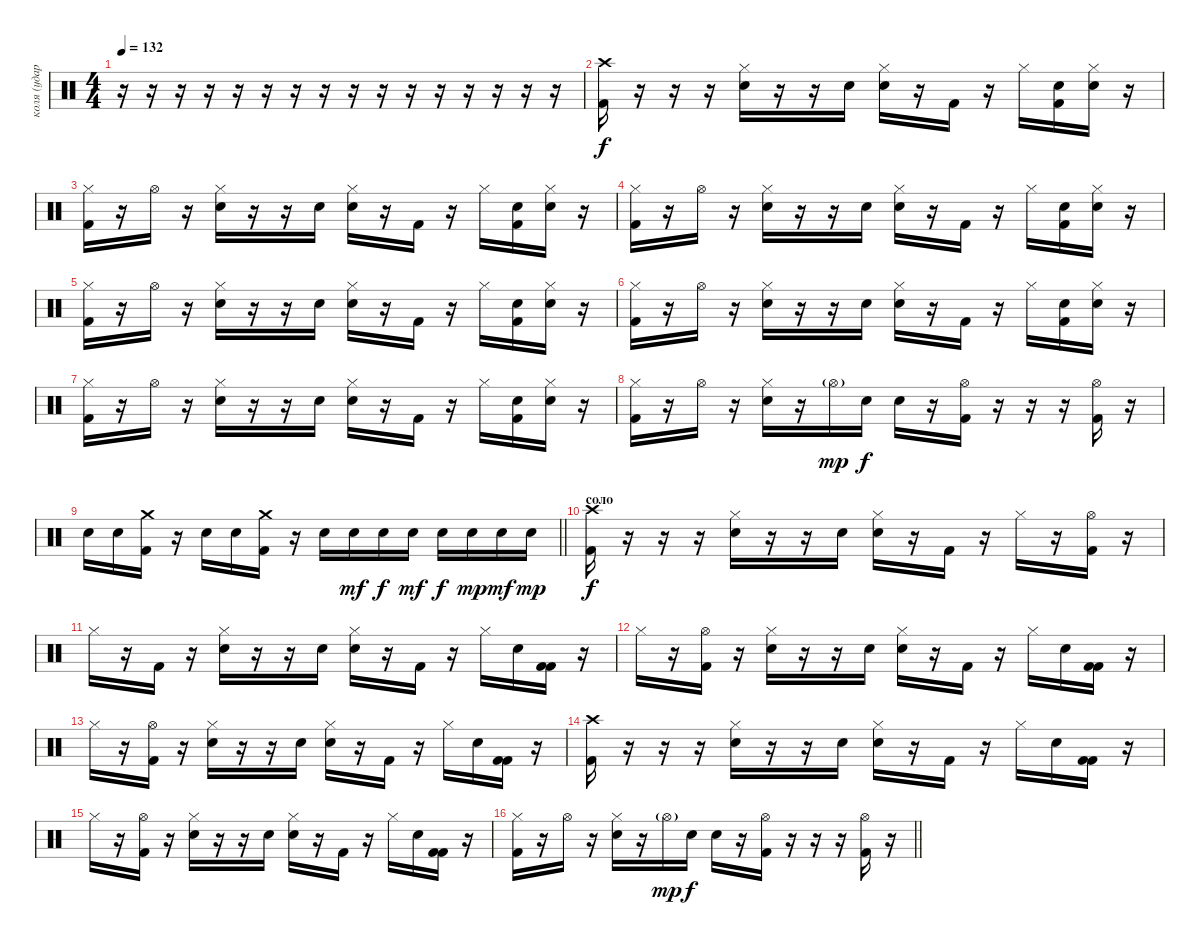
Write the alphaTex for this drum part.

\track ("коля (ударные)" "коля (удар") {instrument percussion}
\staff {score}
\articulation defaults
\ts (4 4)
\tempo 132
\clef neutral
\ks c
r.16{dy f} r.16 r.16 r.16 r.16 r.16 r.16 r.16 r.16 r.16 r.16 r.16 r.16 r.16 r.16 r.16 |
("Kick (hit) 2" "Crash high (hit)").16 r.16 r.16 r.16 ("Snare (hit) 2" "Hi-Hat (closed)").16 r.16 r.16 "Snare (hit) 2".16 ("Snare (hit) 2" "Hi-Hat (closed)").16 r.16 "Kick (hit) 2".16 r.16 "Hi-Hat (closed)".16 ("Snare (hit) 2" "Kick (hit) 2").16 ("Snare (hit) 2" "Hi-Hat (closed)").16 r.16 |
("Kick (hit) 2" "Hi-Hat (closed)").16 r.16 "Hi-Hat (open)".16 r.16 ("Snare (hit) 2" "Hi-Hat (closed)").16 r.16 r.16 "Snare (hit) 2".16 ("Snare (hit) 2" "Hi-Hat (closed)").16 r.16 "Kick (hit) 2".16 r.16 "Hi-Hat (closed)".16 ("Snare (hit) 2" "Kick (hit) 2").16 ("Snare (hit) 2" "Hi-Hat (closed)").16 r.16 |
("Kick (hit) 2" "Hi-Hat (closed)").16 r.16 "Hi-Hat (open)".16 r.16 ("Snare (hit) 2" "Hi-Hat (closed)").16 r.16 r.16 "Snare (hit) 2".16 ("Snare (hit) 2" "Hi-Hat (closed)").16 r.16 "Kick (hit) 2".16 r.16 "Hi-Hat (closed)".16 ("Snare (hit) 2" "Kick (hit) 2").16 ("Snare (hit) 2" "Hi-Hat (closed)").16 r.16 |
("Kick (hit) 2" "Hi-Hat (closed)").16 r.16 "Hi-Hat (open)".16 r.16 ("Snare (hit) 2" "Hi-Hat (closed)").16 r.16 r.16 "Snare (hit) 2".16 ("Snare (hit) 2" "Hi-Hat (closed)").16 r.16 "Kick (hit) 2".16 r.16 "Hi-Hat (closed)".16 ("Snare (hit) 2" "Kick (hit) 2").16 ("Snare (hit) 2" "Hi-Hat (closed)").16 r.16 |
("Kick (hit) 2" "Hi-Hat (closed)").16 r.16 "Hi-Hat (open)".16 r.16 ("Snare (hit) 2" "Hi-Hat (closed)").16 r.16 r.16 "Snare (hit) 2".16 ("Snare (hit) 2" "Hi-Hat (closed)").16 r.16 "Kick (hit) 2".16 r.16 "Hi-Hat (closed)".16 ("Snare (hit) 2" "Kick (hit) 2").16 ("Snare (hit) 2" "Hi-Hat (closed)").16 r.16 |
("Kick (hit) 2" "Hi-Hat (closed)").16 r.16 "Hi-Hat (open)".16 r.16 ("Snare (hit) 2" "Hi-Hat (closed)").16 r.16 r.16 "Snare (hit) 2".16 ("Snare (hit) 2" "Hi-Hat (closed)").16 r.16 "Kick (hit) 2".16 r.16 "Hi-Hat (closed)".16 ("Snare (hit) 2" "Kick (hit) 2").16 ("Snare (hit) 2" "Hi-Hat (closed)").16 r.16 |
("Kick (hit) 2" "Hi-Hat (closed)").16 r.16 "Hi-Hat (open)".16 r.16 ("Snare (hit) 2" "Hi-Hat (closed)").16 r.16 "Hi-Hat (open)"{g}.16{dy mp} "Snare (hit) 2".16{dy f} "Snare (hit) 2".16 r.16 ("Kick (hit) 2" "Hi-Hat (open)").16 r.16 r.16 r.16 ("Kick (hit) 2" "Hi-Hat (open)").16 r.16 |
\barLineRight lightlight "Snare (hit) 2".16 "Snare (hit) 2".16
("Kick (hit) 2" "Crash medium (hit)").16 r.16 "Snare (hit) 2".16 "Snare (hit) 2".16 ("Kick (hit) 2" "Crash medium (hit)").16 r.16 "Snare (hit) 2".16 "Snare (hit) 2".16{dy mf} "Snare (hit) 2".16{dy f} "Snare (hit) 2".16{dy mf} "Snare (hit) 2".16{dy f} "Snare (hit) 2".16{dy mp} "Snare (hit) 2".16{dy mf} "Snare (hit) 2".16{dy mp} |
\section ("" "соло")
("Kick (hit) 2" "Crash high (hit)").16{dy f} r.16 r.16 r.16 ("Snare (hit) 2" "Hi-Hat (closed)").16 r.16 r.16 "Snare (hit) 2".16 ("Snare (hit) 2" "Hi-Hat (closed)").16 r.16 "Kick (hit) 2".16 r.16 "Hi-Hat (closed)".16 r.16 ("Kick (hit) 2" "Hi-Hat (open)").16 r.16 |
"Hi-Hat (closed)".16 r.16 "Kick (hit) 2".16 r.16 ("Snare (hit) 2" "Hi-Hat (closed)").16 r.16 r.16 "Snare (hit) 2".16 ("Snare (hit) 2" "Hi-Hat (closed)").16 r.16 "Kick (hit) 2".16 r.16 "Hi-Hat (closed)".16 "Snare (hit) 2".16 ("Kick (hit) 2" "Kick (hit) 2").16 r.16 |
"Hi-Hat (closed)".16 r.16 ("Kick (hit) 2" "Hi-Hat (open)").16 r.16 ("Snare (hit) 2" "Hi-Hat (closed)").16 r.16 r.16 "Snare (hit) 2".16 ("Snare (hit) 2" "Hi-Hat (closed)").16 r.16 "Kick (hit) 2".16 r.16 "Hi-Hat (closed)".16 "Snare (hit) 2".16 ("Kick (hit) 2" "Kick (hit) 2").16 r.16 |
"Hi-Hat (closed)".16 r.16 ("Kick (hit) 2" "Hi-Hat (open)").16 r.16 ("Snare (hit) 2" "Hi-Hat (closed)").16 r.16 r.16 "Snare (hit) 2".16 ("Snare (hit) 2" "Hi-Hat (closed)").16 r.16 "Kick (hit) 2".16 r.16 "Hi-Hat (closed)".16 "Snare (hit) 2".16 ("Kick (hit) 2" "Kick (hit) 2").16 r.16 |
("Kick (hit) 2" "Crash high (hit)").16 r.16 r.16 r.16 ("Snare (hit) 2" "Hi-Hat (closed)").16 r.16 r.16 "Snare (hit) 2".16 ("Snare (hit) 2" "Hi-Hat (closed)").16 r.16 "Kick (hit) 2".16 r.16 "Hi-Hat (closed)".16 "Snare (hit) 2".16 ("Kick (hit) 2" "Kick (hit) 2").16 r.16 |
"Hi-Hat (closed)".16 r.16 ("Kick (hit) 2" "Hi-Hat (open)").16 r.16 ("Snare (hit) 2" "Hi-Hat (closed)").16 r.16 r.16 "Snare (hit) 2".16 ("Snare (hit) 2" "Hi-Hat (closed)").16 r.16 "Kick (hit) 2".16 r.16 "Hi-Hat (closed)".16 "Snare (hit) 2".16 ("Kick (hit) 2" "Kick (hit) 2").16 r.16 |
\barLineRight lightlight
("Kick (hit) 2" "Hi-Hat (closed)").16 r.16 "Hi-Hat (open)".16 r.16 ("Snare (hit) 2" "Hi-Hat (closed)").16 r.16 "Hi-Hat (open)"{g}.16{dy mp} "Snare (hit) 2".16{dy f} "Snare (hit) 2".16 r.16 ("Kick (hit) 2" "Hi-Hat (open)").16 r.16 r.16 r.16 ("Kick (hit) 2" "Hi-Hat (open)").16 r.16
